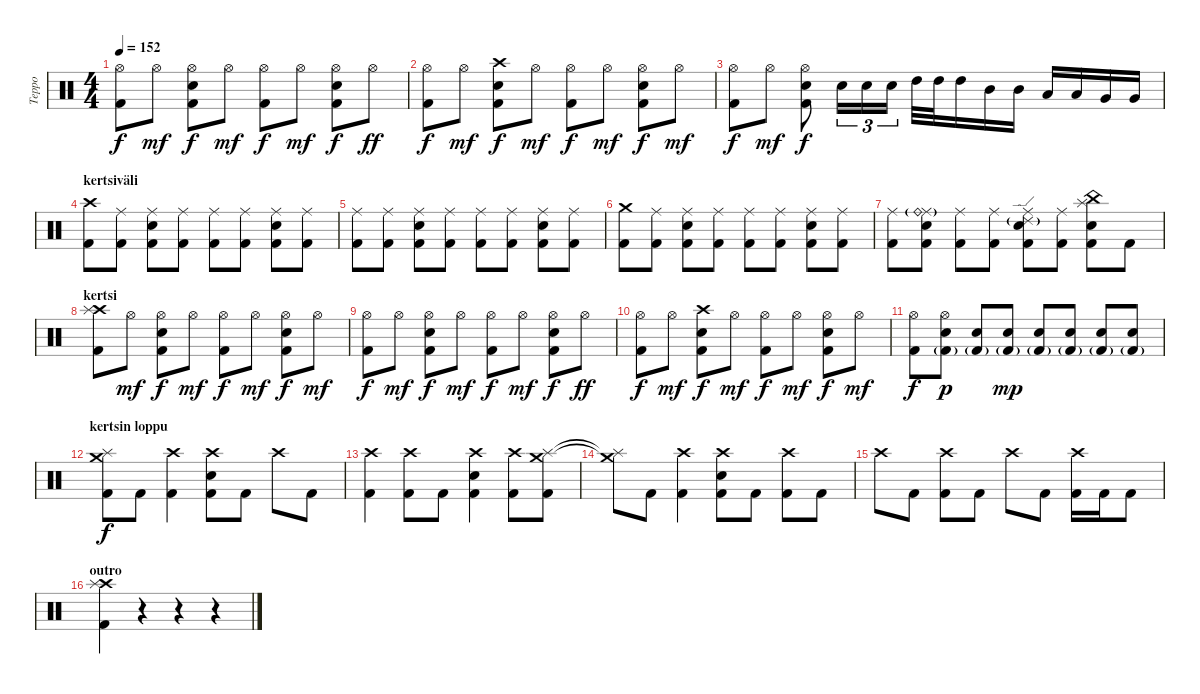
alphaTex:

\track ("Teppo" "Teppo") {instrument percussion}
\staff {score}
\articulation defaults
\ts (4 4)
\tempo 152
\clef neutral
\ks c
("Hi-Hat (open)" "Kick (hit) 2").8{dy f} "Hi-Hat (open)".8{dy mf} ("Hi-Hat (open)" "Electric Snare (hit)" "Kick (hit) 2").8{dy f} "Hi-Hat (open)".8{dy mf} ("Hi-Hat (open)" "Kick (hit) 2").8{dy f} "Hi-Hat (open)".8{dy mf} ("Hi-Hat (open)" "Electric Snare (hit)" "Kick (hit) 2").8{dy f} "Hi-Hat (open)".8{dy ff} |
("Hi-Hat (open)" "Kick (hit) 2").8{dy f} "Hi-Hat (open)".8{dy mf} ("Crash high (hit)" "Electric Snare (hit)" "Kick (hit) 2").8{dy f} "Hi-Hat (open)".8{dy mf} ("Hi-Hat (open)" "Kick (hit) 2").8{dy f} "Hi-Hat (open)".8{dy mf} ("Hi-Hat (open)" "Electric Snare (hit)" "Kick (hit) 2").8{dy f} "Hi-Hat (open)".8{dy mf} |
("Hi-Hat (open)" "Kick (hit) 2").8{dy f} "Hi-Hat (open)".8{dy mf} ("Hi-Hat (open)" "Electric Snare (hit)" "Kick (hit) 2").8{dy f} "Electric Snare (hit)".16{tu (3 2)} "Electric Snare (hit)".16{tu (3 2)} "Electric Snare (hit)".16{tu (3 2)} "High Tom (hit)".32 "High Tom (hit)".32 "High Tom (hit)".16 "Mid Tom (hit)".16 "Mid Tom (hit)".16 "Low Tom (hit)".16 "Low Tom (hit)".16 "Very Low Tom (hit)".16 "Very Low Tom (hit)".16 |
\section ("" "kertsiväli")
("Crash high (hit)" "Kick (hit) 2").8 ("Ride (middle)" "Kick (hit) 2").8 ("Ride (middle)" "Electric Snare (hit)" "Kick (hit) 2").8 ("Ride (middle)" "Kick (hit) 2").8 ("Ride (middle)" "Kick (hit) 2").8 ("Ride (middle)" "Kick (hit) 2").8 ("Ride (middle)" "Electric Snare (hit)" "Kick (hit) 2").8 ("Ride (middle)" "Kick (hit) 2").8 |
("Ride (middle)" "Kick (hit) 2").8 ("Ride (middle)" "Kick (hit) 2").8 ("Ride (middle)" "Electric Snare (hit)" "Kick (hit) 2").8 ("Ride (middle)" "Kick (hit) 2").8 ("Ride (middle)" "Kick (hit) 2").8 ("Ride (middle)" "Kick (hit) 2").8 ("Ride (middle)" "Electric Snare (hit)" "Kick (hit) 2").8 ("Ride (middle)" "Kick (hit) 2").8 |
("Crash medium (hit)" "Kick (hit) 2").8 ("Ride (middle)" "Kick (hit) 2").8 ("Ride (middle)" "Electric Snare (hit)" "Kick (hit) 2").8 ("Ride (middle)" "Kick (hit) 2").8 ("Ride (middle)" "Kick (hit) 2").8 ("Ride (middle)" "Kick (hit) 2").8 ("Ride (middle)" "Electric Snare (hit)" "Kick (hit) 2").8 ("Ride (middle)" "Kick (hit) 2").8 |
("Ride (middle)" "Kick (hit) 2").8 ("Ride (middle)" "Ride (bell)"{g} "Electric Snare (hit)" "Kick (hit) 2").8 ("Ride (middle)" "Kick (hit) 2").8 ("Ride (middle)" "Kick (hit) 2").8 ("Ride (middle)" "Ride (edge) 2"{g} "Electric Snare (hit)" "Kick (hit) 2").8 ("Ride (middle)" "Kick (hit) 2").8 ("China (hit)" "Splash (hit)" "Electric Snare (hit)" "Kick (hit) 2").8 "Kick (hit) 2".8 |
\section ("" "kertsi")
("Crash high (hit)" "Splash (hit)" "Kick (hit) 2").8 "Hi-Hat (open)".8{dy mf} ("Hi-Hat (open)" "Electric Snare (hit)" "Kick (hit) 2").8{dy f} "Hi-Hat (open)".8{dy mf} ("Hi-Hat (open)" "Kick (hit) 2").8{dy f} "Hi-Hat (open)".8{dy mf} ("Hi-Hat (open)" "Electric Snare (hit)" "Kick (hit) 2").8{dy f} "Hi-Hat (open)".8{dy mf} |
("Hi-Hat (open)" "Kick (hit) 2").8{dy f} "Hi-Hat (open)".8{dy mf} ("Hi-Hat (open)" "Electric Snare (hit)" "Kick (hit) 2").8{dy f} "Hi-Hat (open)".8{dy mf} ("Hi-Hat (open)" "Kick (hit) 2").8{dy f} "Hi-Hat (open)".8{dy mf} ("Hi-Hat (open)" "Electric Snare (hit)" "Kick (hit) 2").8{dy f} "Hi-Hat (open)".8{dy ff} |
("Hi-Hat (open)" "Kick (hit) 2").8{dy f} "Hi-Hat (open)".8{dy mf} ("Crash high (hit)" "Electric Snare (hit)" "Kick (hit) 2").8{dy f} "Hi-Hat (open)".8{dy mf} ("Hi-Hat (open)" "Kick (hit) 2").8{dy f} "Hi-Hat (open)".8{dy mf} ("Hi-Hat (open)" "Electric Snare (hit)" "Kick (hit) 2").8{dy f} "Hi-Hat (open)".8{dy mf} |
("Hi-Hat (open)" "Kick (hit) 2").8{dy f} ("Hi-Hat (open)" "Electric Snare (hit)" "Kick (hit) 2"{g}).8{dy p} ("Electric Snare (hit)" "Kick (hit) 2"{g}).8 ("Electric Snare (hit)" "Kick (hit) 2"{g}).8{dy mp} ("Electric Snare (hit)" "Kick (hit) 2"{g}).8 ("Electric Snare (hit)" "Kick (hit) 2"{g}).8 ("Electric Snare (hit)" "Kick (hit) 2"{g}).8 ("Electric Snare (hit)" "Kick (hit) 2"{g}).8 |
\section ("" "kertsin loppu")
("Crash medium (hit)" "Splash (hit)" "Kick (hit) 2").8{dy f} "Kick (hit) 2".8 ("Crash high (hit)" "Kick (hit) 2").4 ("Crash high (hit)" "Electric Snare (hit)" "Kick (hit) 2").8 "Kick (hit) 2".8 "Crash high (hit)".8 "Kick (hit) 2".8 |
("Crash high (hit)" "Kick (hit) 2").4 ("Crash high (hit)" "Kick (hit) 2").8 "Kick (hit) 2".8 ("Crash high (hit)" "Electric Snare (hit)" "Kick (hit) 2").4 ("Crash high (hit)" "Kick (hit) 2").8 ("Crash medium (hit)" "Splash (hit)" "Kick (hit) 2").8 |
("Crash medium (hit)"{t} "Splash (hit)"{t}).8 "Kick (hit) 2".8 ("Crash high (hit)" "Kick (hit) 2").4 ("Crash high (hit)" "Electric Snare (hit)" "Kick (hit) 2").8 "Kick (hit) 2".8 ("Crash high (hit)" "Kick (hit) 2").8 "Kick (hit) 2".8 |
"Crash high (hit)".8 "Kick (hit) 2".8 ("Crash high (hit)" "Kick (hit) 2").8 "Kick (hit) 2".8 "Crash high (hit)".8 "Kick (hit) 2".8 ("Crash high (hit)" "Kick (hit) 2").16 "Kick (hit) 2".16 "Kick (hit) 2".8 |
\section ("" "outro")
("Crash high (hit)" "Splash (hit)" "Kick (hit) 2").4 r.4 r.4 r.4
